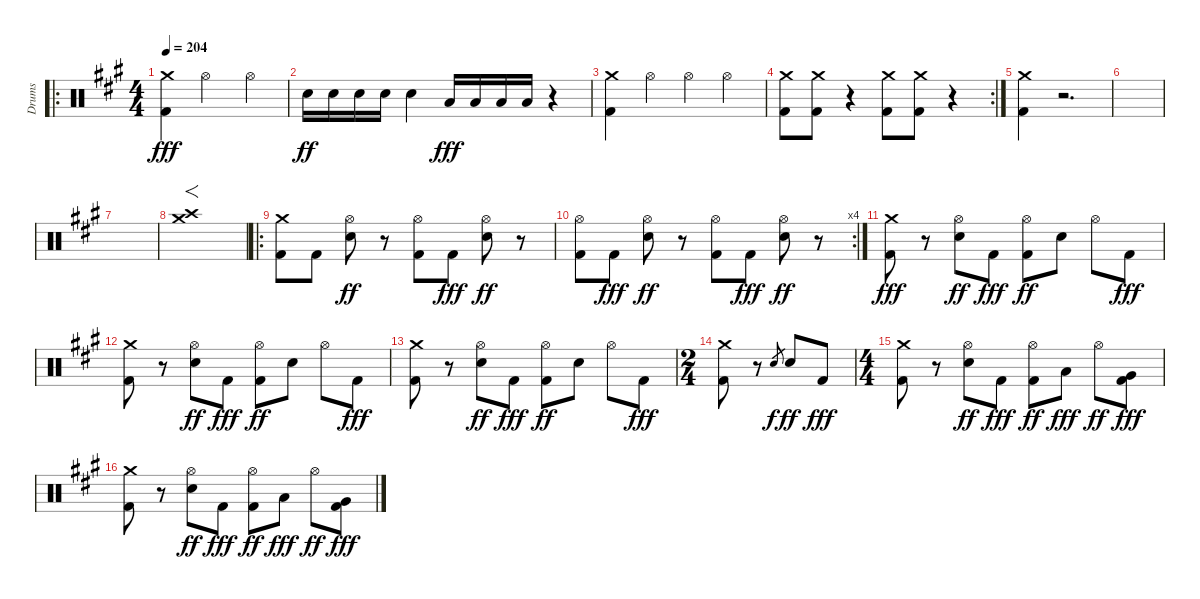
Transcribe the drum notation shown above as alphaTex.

\track ("Drums" "Drums") {instrument percussion}
\staff {score}
\articulation defaults
\ro
\ts (4 4)
\tempo 204
\clef neutral
\ks a
("Kick (hit) 2" "Crash medium (hit)").4{dy fff} "Hi-Hat (open)".2 "Hi-Hat (open)".4 |
"Electric Snare (hit)".16{dy ff} "Electric Snare (hit)".16 "Electric Snare (hit)".16 "Electric Snare (hit)".16 "Electric Snare (hit)".4 "Low Tom (hit)".16{dy fff} "Low Tom (hit)".16 "Low Tom (hit)".16 "Low Tom (hit)".16 r.4 |
("Kick (hit) 2" "Crash medium (hit)").4 "Hi-Hat (open)".4 "Hi-Hat (open)".4 "Hi-Hat (open)".4 |
\rc 2
("Kick (hit) 2" "Crash medium (hit)").8 ("Kick (hit) 2" "Crash medium (hit)").8 r.4 ("Kick (hit) 2" "Crash medium (hit)").8 ("Kick (hit) 2" "Crash medium (hit)").8 r.4 |
("Kick (hit) 2" "Crash medium (hit)").4 r.2{d} |
|
|
("Crash high (hit)" "Crash medium (hit)").1{f} |
\ro
("Kick (hit) 2" "Crash medium (hit)").8 "Kick (hit) 2".8 ("Electric Snare (hit)" "Hi-Hat (open)").8{dy ff} r.8 ("Kick (hit) 2" "Hi-Hat (open)").8 "Kick (hit) 2".8{dy fff} ("Electric Snare (hit)" "Hi-Hat (open)").8{dy ff} r.8 |
\rc 4
("Kick (hit) 2" "Hi-Hat (open)").8 "Kick (hit) 2".8{dy fff} ("Electric Snare (hit)" "Hi-Hat (open)").8{dy ff} r.8 ("Kick (hit) 2" "Hi-Hat (open)").8 "Kick (hit) 2".8{dy fff} ("Electric Snare (hit)" "Hi-Hat (open)").8{dy ff} r.8 |
("Kick (hit) 2" "Crash medium (hit)").8{dy fff} r.8 ("Electric Snare (hit)" "Hi-Hat (open)").8{dy ff} "Kick (hit) 2".8{dy fff} ("Kick (hit) 2" "Hi-Hat (open)").8{dy ff} "Electric Snare (hit)".8 "Hi-Hat (open)".8 "Kick (hit) 2".8{dy fff} |
("Kick (hit) 2" "Crash medium (hit)").8 r.8 ("Electric Snare (hit)" "Hi-Hat (open)").8{dy ff} "Kick (hit) 2".8{dy fff} ("Kick (hit) 2" "Hi-Hat (open)").8{dy ff} "Electric Snare (hit)".8 "Hi-Hat (open)".8 "Kick (hit) 2".8{dy fff} |
("Kick (hit) 2" "Crash medium (hit)").8 r.8 ("Electric Snare (hit)" "Hi-Hat (open)").8{dy ff} "Kick (hit) 2".8{dy fff} ("Kick (hit) 2" "Hi-Hat (open)").8{dy ff} "Electric Snare (hit)".8 "Hi-Hat (open)".8 "Kick (hit) 2".8{dy fff} |
\ts (2 4)
("Kick (hit) 2" "Crash medium (hit)").8 r.8 "Electric Snare (hit)".8{gr dy f} "Electric Snare (hit)".8{dy ff} "Kick (hit) 2".8{dy fff} |
\ts (4 4)
("Kick (hit) 2" "Crash medium (hit)").8 r.8 ("Electric Snare (hit)" "Hi-Hat (open)").8{dy ff} "Kick (hit) 2".8{dy fff} ("Kick (hit) 2" "Hi-Hat (open)").8{dy ff} "Low Tom (hit)".8{dy fff} "Hi-Hat (open)".8{dy ff} ("Kick (hit) 2" "Very Low Tom (hit)").8{dy fff} |
("Kick (hit) 2" "Crash medium (hit)").8 r.8 ("Electric Snare (hit)" "Hi-Hat (open)").8{dy ff} "Kick (hit) 2".8{dy fff} ("Kick (hit) 2" "Hi-Hat (open)").8{dy ff} "Low Tom (hit)".8{dy fff} "Hi-Hat (open)".8{dy ff} ("Kick (hit) 2" "Very Low Tom (hit)").8{dy fff}
